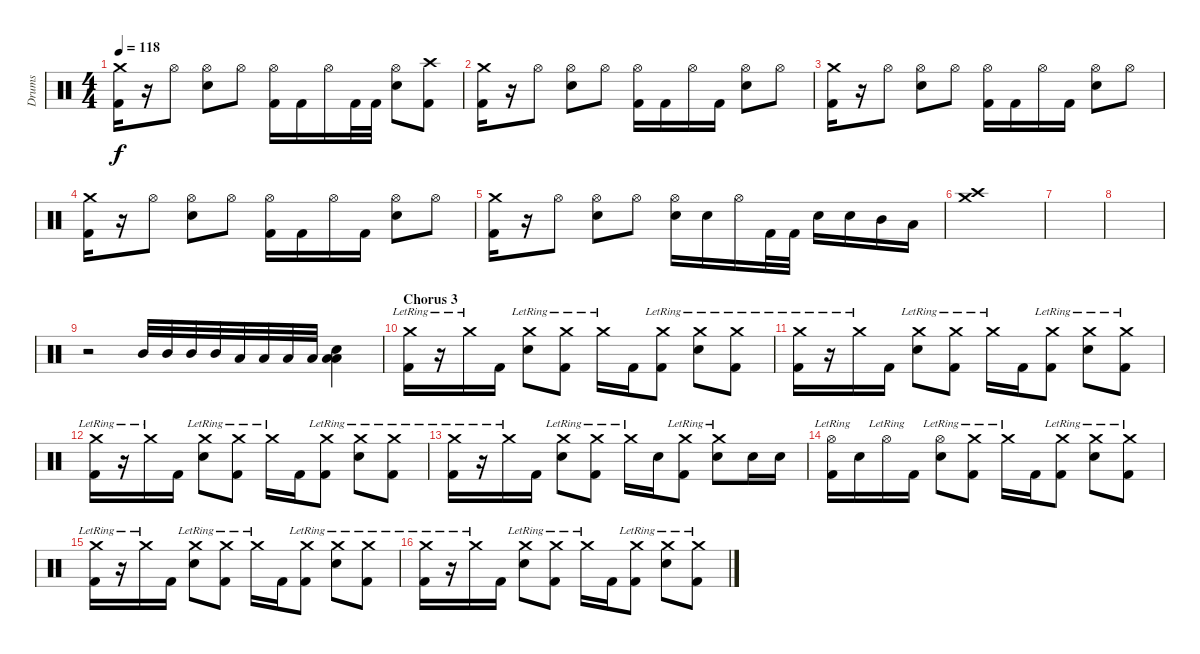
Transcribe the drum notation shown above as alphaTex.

\track ("Drums" "Drums") {instrument percussion}
\staff {score}
\articulation defaults
\ts (4 4)
\tempo 118
\clef neutral
\ks c
("Crash medium (hit)" "Kick (hit) 2").16{dy f} r.16 "Hi-Hat (open)".8 ("Hi-Hat (open)" "Electric Snare (hit)").8 "Hi-Hat (open)".8 ("Hi-Hat (open)" "Kick (hit) 2").16 "Kick (hit) 2".16 "Hi-Hat (open)".16 "Kick (hit) 2".32 "Kick (hit) 2".32 ("Hi-Hat (open)" "Electric Snare (hit)").8 ("Crash high (hit)" "Kick (hit) 2").8 |
("Crash medium (hit)" "Kick (hit) 2").16 r.16 "Hi-Hat (open)".8 ("Hi-Hat (open)" "Electric Snare (hit)").8 "Hi-Hat (open)".8 ("Hi-Hat (open)" "Kick (hit) 2").16 "Kick (hit) 2".16 "Hi-Hat (open)".16 "Kick (hit) 2".16 ("Hi-Hat (open)" "Electric Snare (hit)").8 "Hi-Hat (open)".8 |
("Crash medium (hit)" "Kick (hit) 2").16 r.16 "Hi-Hat (open)".8 ("Hi-Hat (open)" "Electric Snare (hit)").8 "Hi-Hat (open)".8 ("Hi-Hat (open)" "Kick (hit) 2").16 "Kick (hit) 2".16 "Hi-Hat (open)".16 "Kick (hit) 2".16 ("Hi-Hat (open)" "Electric Snare (hit)").8 "Hi-Hat (open)".8 |
("Crash medium (hit)" "Kick (hit) 2").16 r.16 "Hi-Hat (open)".8 ("Hi-Hat (open)" "Electric Snare (hit)").8 "Hi-Hat (open)".8 ("Hi-Hat (open)" "Kick (hit) 2").16 "Kick (hit) 2".16 "Hi-Hat (open)".16 "Kick (hit) 2".16 ("Hi-Hat (open)" "Electric Snare (hit)").8 "Hi-Hat (open)".8 |
("Crash medium (hit)" "Kick (hit) 2").16 r.16 "Hi-Hat (open)".8 ("Hi-Hat (open)" "Electric Snare (hit)").8 "Hi-Hat (open)".8 ("Hi-Hat (open)" "Electric Snare (hit)").16 "Electric Snare (hit)".16 "Hi-Hat (open)".16 "Kick (hit) 2".32 "Kick (hit) 2".32 "Electric Snare (hit)".16 "Electric Snare (hit)".16 "Mid Tom (hit)".16 "Low Floor Tom (hit)".16 |
("Crash medium (hit)" "Crash high (hit)").1 |
|
|
r.2 "Mid Tom (hit)".32 "Mid Tom (hit)".32 "Mid Tom (hit)".32 "Mid Tom (hit)".32 "Low Tom (hit)".32 "Low Tom (hit)".32 "Low Tom (hit)".32 "Low Tom (hit)".32 ("Electric Snare (hit)" "Low Floor Tom (hit)" "Low Floor Tom (hit)").4 |
\section ("" "Chorus 3")
("Crash medium (hit)"{lr} "Kick (hit) 2").16 r.16 "Crash medium (hit)"{lr}.16 "Kick (hit) 2".16 ("Crash medium (hit)"{lr} "Electric Snare (hit)").8 ("Crash medium (hit)"{lr} "Kick (hit) 2").8 "Crash medium (hit)"{lr}.16 "Kick (hit) 2".16 ("Crash medium (hit)"{lr} "Kick (hit) 2").8 ("Crash medium (hit)"{lr} "Electric Snare (hit)").8 ("Crash medium (hit)"{lr} "Kick (hit) 2").8 |
("Crash medium (hit)"{lr} "Kick (hit) 2").16 r.16 "Crash medium (hit)"{lr}.16 "Kick (hit) 2".16 ("Crash medium (hit)"{lr} "Electric Snare (hit)").8 ("Crash medium (hit)"{lr} "Kick (hit) 2").8 "Crash medium (hit)"{lr}.16 "Kick (hit) 2".16 ("Crash medium (hit)"{lr} "Kick (hit) 2").8 ("Crash medium (hit)"{lr} "Electric Snare (hit)").8 ("Crash medium (hit)"{lr} "Kick (hit) 2").8 |
("Crash medium (hit)"{lr} "Kick (hit) 2").16 r.16 "Crash medium (hit)"{lr}.16 "Kick (hit) 2".16 ("Crash medium (hit)"{lr} "Electric Snare (hit)").8 ("Crash medium (hit)"{lr} "Kick (hit) 2").8 "Crash medium (hit)"{lr}.16 "Kick (hit) 2".16 ("Crash medium (hit)"{lr} "Kick (hit) 2").8 ("Crash medium (hit)"{lr} "Electric Snare (hit)").8 ("Crash medium (hit)"{lr} "Kick (hit) 2").8 |
("Crash medium (hit)"{lr} "Kick (hit) 2").16 r.16 "Crash medium (hit)"{lr}.16 "Kick (hit) 2".16 ("Crash medium (hit)"{lr} "Electric Snare (hit)").8 ("Crash medium (hit)"{lr} "Kick (hit) 2").8 "Crash medium (hit)"{lr}.16 "Electric Snare (hit)".16 ("Crash medium (hit)"{lr} "Kick (hit) 2").8 ("Crash medium (hit)"{lr} "Electric Snare (hit)").8 "Electric Snare (hit)".16 "Electric Snare (hit)".16 |
("Hi-Hat (open)"{lr} "Kick (hit) 2").16 "Electric Snare (hit)".16 "Hi-Hat (open)"{lr}.16 "Kick (hit) 2".16 ("Hi-Hat (open)"{lr} "Electric Snare (hit)").8 ("Crash medium (hit)"{lr} "Kick (hit) 2").8 "Crash medium (hit)"{lr}.16 "Kick (hit) 2".16 ("Crash medium (hit)"{lr} "Kick (hit) 2").8 ("Crash medium (hit)"{lr} "Electric Snare (hit)").8 ("Crash medium (hit)"{lr} "Kick (hit) 2").8 |
("Crash medium (hit)"{lr} "Kick (hit) 2").16 r.16 "Crash medium (hit)"{lr}.16 "Kick (hit) 2".16 ("Crash medium (hit)"{lr} "Electric Snare (hit)").8 ("Crash medium (hit)"{lr} "Kick (hit) 2").8 "Crash medium (hit)"{lr}.16 "Kick (hit) 2".16 ("Crash medium (hit)"{lr} "Kick (hit) 2").8 ("Crash medium (hit)"{lr} "Electric Snare (hit)").8 ("Crash medium (hit)"{lr} "Kick (hit) 2").8 |
("Crash medium (hit)"{lr} "Kick (hit) 2").16 r.16 "Crash medium (hit)"{lr}.16 "Kick (hit) 2".16 ("Crash medium (hit)"{lr} "Electric Snare (hit)").8 ("Crash medium (hit)"{lr} "Kick (hit) 2").8 "Crash medium (hit)"{lr}.16 "Kick (hit) 2".16 ("Crash medium (hit)"{lr} "Kick (hit) 2").8 ("Crash medium (hit)"{lr} "Electric Snare (hit)").8 ("Crash medium (hit)"{lr} "Kick (hit) 2").8
